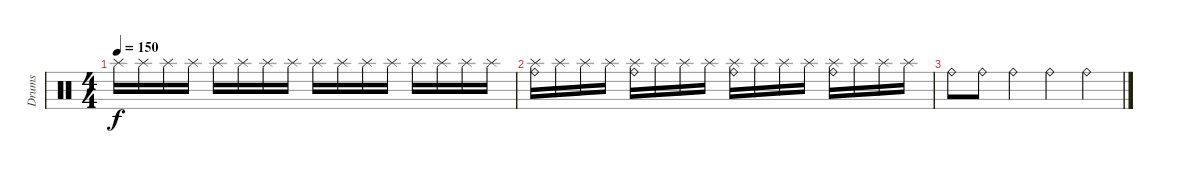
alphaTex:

\track ("Drums" "Drums") {instrument percussion}
\staff {score}
\articulation defaults
\ts (4 4)
\tempo 150
\clef neutral
\ks c "Splash (hit)".16{dy f} "Splash (hit)".16 "Splash (hit)".16 "Splash (hit)".16 "Splash (hit)".16 "Splash (hit)".16 "Splash (hit)".16 "Splash (hit)".16 "Splash (hit)".16 "Splash (hit)".16 "Splash (hit)".16 "Splash (hit)".16 "Splash (hit)".16 "Splash (hit)".16 "Splash (hit)".16 "Splash (hit)".16
|
("Ride (bell)" "Splash (hit)").16 "Splash (hit)".16 "Splash (hit)".16 "Splash (hit)".16 ("Ride (bell)" "Splash (hit)").16 "Splash (hit)".16 "Splash (hit)".16 "Splash (hit)".16 ("Ride (bell)" "Splash (hit)").16 "Splash (hit)".16 "Splash (hit)".16 "Splash (hit)".16 ("Ride (bell)" "Splash (hit)").16 "Splash (hit)".16 "Splash (hit)".16 "Splash (hit)".16 |
"Ride (bell)".8 "Ride (bell)".8 "Ride (bell)".4 "Ride (bell)".4 "Ride (bell)".4
